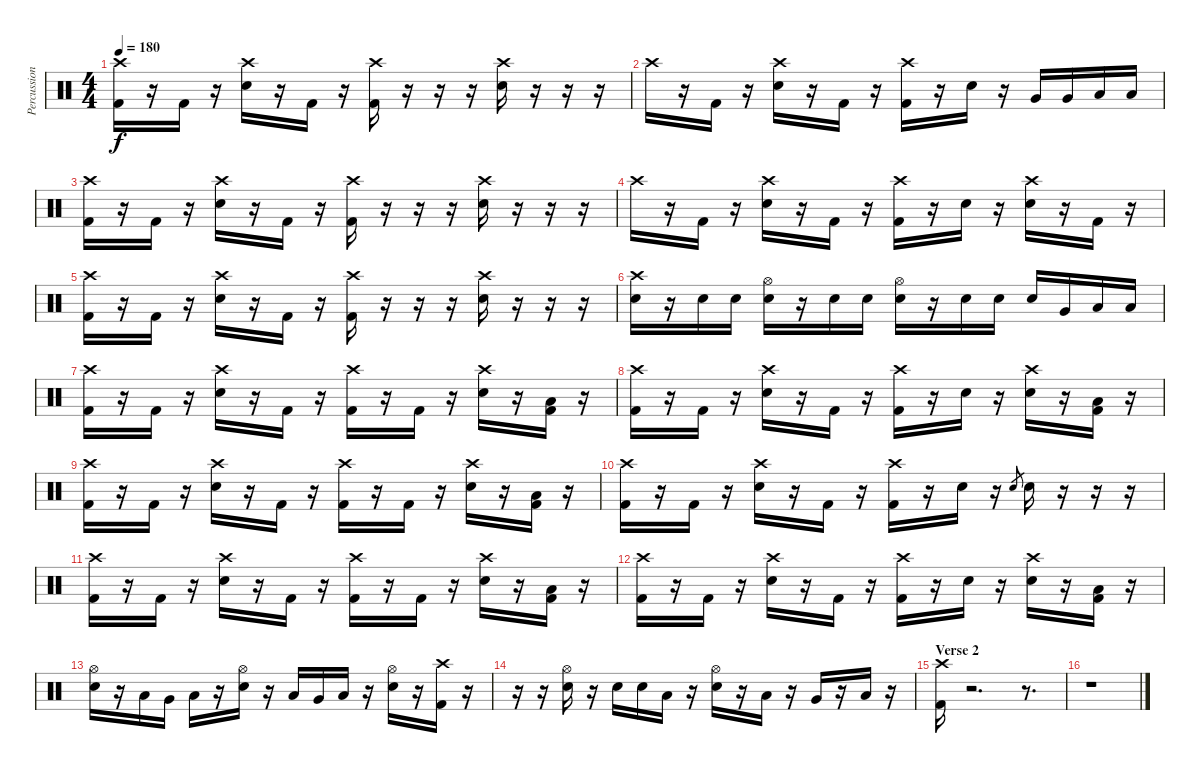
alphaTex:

\track ("Percussion" "Percussion") {instrument percussion}
\staff {score}
\articulation defaults
\ts (4 4)
\tempo 180
\clef neutral
\ks c
("Crash high (hit)" "Kick (hit) 2").16{dy f} r.16 "Kick (hit) 2".16 r.16 ("Crash high (hit)" "Electric Snare (hit)").16 r.16 "Kick (hit) 2".16 r.16 ("Crash high (hit)" "Kick (hit) 2").16 r.16 r.16 r.16 ("Crash high (hit)" "Electric Snare (hit)").16 r.16 r.16 r.16 |
"Crash high (hit)".16 r.16 "Kick (hit) 2".16 r.16 ("Crash high (hit)" "Electric Snare (hit)").16 r.16 "Kick (hit) 2".16 r.16 ("Crash high (hit)" "Kick (hit) 2").16 r.16 "Electric Snare (hit)".16 r.16 "Very Low Tom (hit)".16 "Very Low Tom (hit)".16 "Low Floor Tom (hit)".16 "Low Floor Tom (hit)".16 |
("Crash high (hit)" "Kick (hit) 2").16 r.16 "Kick (hit) 2".16 r.16 ("Crash high (hit)" "Electric Snare (hit)").16 r.16 "Kick (hit) 2".16 r.16 ("Crash high (hit)" "Kick (hit) 2").16 r.16 r.16 r.16 ("Crash high (hit)" "Electric Snare (hit)").16 r.16 r.16 r.16 |
"Crash high (hit)".16 r.16 "Kick (hit) 2".16 r.16 ("Crash high (hit)" "Electric Snare (hit)").16 r.16 "Kick (hit) 2".16 r.16 ("Crash high (hit)" "Kick (hit) 2").16 r.16 "Electric Snare (hit)".16 r.16 ("Crash high (hit)" "Electric Snare (hit)").16 r.16 "Kick (hit) 2".16 r.16 |
("Crash high (hit)" "Kick (hit) 2").16 r.16 "Kick (hit) 2".16 r.16 ("Crash high (hit)" "Electric Snare (hit)").16 r.16 "Kick (hit) 2".16 r.16 ("Crash high (hit)" "Kick (hit) 2").16 r.16 r.16 r.16 ("Crash high (hit)" "Electric Snare (hit)").16 r.16 r.16 r.16 |
("Crash high (hit)" "Electric Snare (hit)").16 r.16 "Electric Snare (hit)".16 "Electric Snare (hit)".16 ("Hi-Hat (open)" "Electric Snare (hit)").16 r.16 "Electric Snare (hit)".16 "Electric Snare (hit)".16 ("Hi-Hat (open)" "Electric Snare (hit)").16 r.16 "Electric Snare (hit)".16 "Electric Snare (hit)".16 "Electric Snare (hit)".16 "Very Low Tom (hit)".16 "Low Floor Tom (hit)".16 "Low Floor Tom (hit)".16 |
("Crash high (hit)" "Kick (hit) 2").16 r.16 "Kick (hit) 2".16 r.16 ("Crash high (hit)" "Electric Snare (hit)").16 r.16 "Kick (hit) 2".16 r.16 ("Crash high (hit)" "Kick (hit) 2").16 r.16 "Kick (hit) 2".16 r.16 ("Crash high (hit)" "Electric Snare (hit)").16 r.16 ("Low Floor Tom (hit)" "Kick (hit) 2").16 r.16 |
("Crash high (hit)" "Kick (hit) 2").16 r.16 "Kick (hit) 2".16 r.16 ("Crash high (hit)" "Electric Snare (hit)").16 r.16 "Kick (hit) 2".16 r.16 ("Crash high (hit)" "Kick (hit) 2").16 r.16 "Electric Snare (hit)".16 r.16 ("Crash high (hit)" "Electric Snare (hit)").16 r.16 ("Low Floor Tom (hit)" "Kick (hit) 2").16 r.16 |
("Crash high (hit)" "Kick (hit) 2").16 r.16 "Kick (hit) 2".16 r.16 ("Crash high (hit)" "Electric Snare (hit)").16 r.16 "Kick (hit) 2".16 r.16 ("Crash high (hit)" "Kick (hit) 2").16 r.16 "Kick (hit) 2".16 r.16 ("Crash high (hit)" "Electric Snare (hit)").16 r.16 ("Low Floor Tom (hit)" "Kick (hit) 2").16 r.16 |
("Crash high (hit)" "Kick (hit) 2").16 r.16 "Kick (hit) 2".16 r.16 ("Crash high (hit)" "Electric Snare (hit)").16 r.16 "Kick (hit) 2".16 r.16 ("Crash high (hit)" "Kick (hit) 2").16 r.16 "Electric Snare (hit)".16 r.16 "Electric Snare (hit)".8{gr} "Electric Snare (hit)".16 r.16 r.16 r.16 |
("Crash high (hit)" "Kick (hit) 2").16 r.16 "Kick (hit) 2".16 r.16 ("Crash high (hit)" "Electric Snare (hit)").16 r.16 "Kick (hit) 2".16 r.16 ("Crash high (hit)" "Kick (hit) 2").16 r.16 "Kick (hit) 2".16 r.16 ("Crash high (hit)" "Electric Snare (hit)").16 r.16 ("Low Floor Tom (hit)" "Kick (hit) 2").16 r.16 |
("Crash high (hit)" "Kick (hit) 2").16 r.16 "Kick (hit) 2".16 r.16 ("Crash high (hit)" "Electric Snare (hit)").16 r.16 "Kick (hit) 2".16 r.16 ("Crash high (hit)" "Kick (hit) 2").16 r.16 "Electric Snare (hit)".16 r.16 ("Crash high (hit)" "Electric Snare (hit)").16 r.16 ("Low Floor Tom (hit)" "Kick (hit) 2").16 r.16 |
("Hi-Hat (open)" "Electric Snare (hit)").16 r.16 "Low Tom (hit)".16 "Very Low Tom (hit)".16 "Low Floor Tom (hit)".16 r.16 ("Hi-Hat (open)" "Electric Snare (hit)").16 r.16 "Low Tom (hit)".16 "Very Low Tom (hit)".16 "Low Floor Tom (hit)".16 r.16 ("Hi-Hat (open)" "Electric Snare (hit)").16 r.16 ("Crash high (hit)" "Kick (hit) 2").16 r.16 |
r.16 r.16 ("Hi-Hat (open)" "Electric Snare (hit)").16 r.16 "Electric Snare (hit)".16 "Electric Snare (hit)".16 "Low Floor Tom (hit)".16 r.16 ("Hi-Hat (open)" "Electric Snare (hit)").16 r.16 "Low Tom (hit)".16 r.16 "Very Low Tom (hit)".16 r.16 "Low Floor Tom (hit)".16 r.16 |
\section ("" "Verse 2")
("Crash high (hit)" "Kick (hit) 2").16 r.2{d} r.8{d} |
r.1
